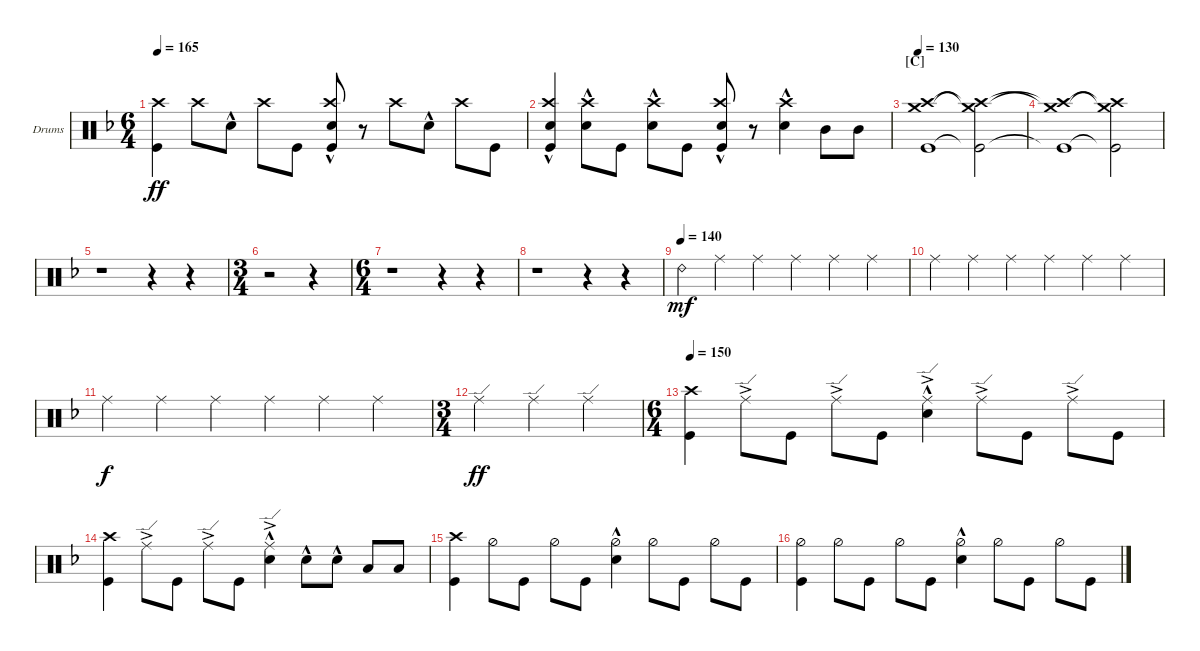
\defaultSystemsLayout 4
\bracketExtendMode groupsimilarinstruments
\firstSystemTrackNameOrientation horizontal
\otherSystemsTrackNameOrientation horizontal
\track ("Drumkit" "Drums") {instrument percussion}
\staff {score}
\articulation defaults
\ts (6 4)
\tempo 165
\clef neutral
\ks f
("Kick (hit)" "Crash high (hit)").4{dy ff} "Crash high (hit)".8 "Snare (hit) 2"{hac}.8 "Crash high (hit)".8 "Kick (hit)".8 ("Kick (hit)" "Snare (hit) 2"{hac} "Crash high (hit)").8 r.8 "Crash high (hit)".8 "Snare (hit) 2"{hac}.8 "Crash high (hit)".8 "Kick (hit)".8 |
("Kick (hit)" "Crash high (hit)" "Snare (hit) 2"{hac}).4 ("Crash high (hit)" "Snare (hit) 2"{hac}).8 "Kick (hit)".8 ("Crash high (hit)" "Snare (hit) 2"{hac}).8 "Kick (hit)".8 ("Kick (hit)" "Snare (hit) 2"{hac} "Crash high (hit)").8 r.8 ("Crash high (hit)" "Snare (hit) 2"{hac}).4 "Mid Tom (hit)".8 "Mid Tom (hit)".8 |
\section ("C" "")
\tempo 130
("Kick (hit)" "Crash high (hit)" "Crash medium (hit)").1 ("Kick (hit)"{t} "Crash medium (hit)"{t} "Crash high (hit)"{t}).2 |
("Kick (hit)"{t} "Crash high (hit)"{t} "Crash medium (hit)"{t}).1 ("Kick (hit)"{t} "Crash medium (hit)"{t} "Crash high (hit)"{t}).2 |
r.1 r.4 r.4 |
\ts (3 4)
r.2 r.4 |
\ts (6 4)
r.1 r.4 r.4 |
r.1 r.4 r.4 |
\tempo (140)
"Ride (bell) 2".4{dy mf} "Ride (middle)".4 "Ride (middle)".4 "Ride (middle)".4 "Ride (middle)".4 "Ride (middle)".4 |
"Ride (middle)".4 "Ride (middle)".4 "Ride (middle)".4 "Ride (middle)".4 "Ride (middle)".4 "Ride (middle)".4 |
"Ride (middle)".4{dy f} "Ride (middle)".4 "Ride (middle)".4 "Ride (middle)".4 "Ride (middle)".4 "Ride (middle)".4 |
\ts (3 4)
"Ride (edge)".4{dy ff} "Ride (edge)".4 "Ride (edge)".4 |
\ts (6 4)
\tempo 150
("Kick (hit)" "Crash high (hit)").4 "Ride (edge)"{ac}.8 "Kick (hit)".8 "Ride (edge)"{ac}.8 "Kick (hit)".8 ("Snare (hit) 2"{hac} "Ride (edge)"{ac}).4 "Ride (edge)"{ac}.8 "Kick (hit)".8 "Ride (edge)"{ac}.8 "Kick (hit)".8 |
("Kick (hit)" "Crash high (hit)").4 "Ride (edge)"{ac}.8 "Kick (hit)".8 "Ride (edge)"{ac}.8 "Kick (hit)".8 ("Snare (hit) 2"{hac} "Ride (edge)"{ac}).4 "Snare (hit) 2"{hac}.8 "Snare (hit) 2"{hac}.8 "Low Tom (hit)".8 "Low Tom (hit)".8 |
("Kick (hit)" "Crash high (hit)").4 "Hi-Hat (half)".8 "Kick (hit)".8 "Hi-Hat (half)".8 "Kick (hit)".8 ("Hi-Hat (half)" "Snare (hit) 2"{hac}).4 "Hi-Hat (half)".8 "Kick (hit)".8 "Hi-Hat (half)".8 "Kick (hit)".8 |
("Kick (hit)" "Hi-Hat (half)").4 "Hi-Hat (half)".8 "Kick (hit)".8 "Hi-Hat (half)".8 "Kick (hit)".8 ("Hi-Hat (half)" "Snare (hit) 2"{hac}).4 "Hi-Hat (half)".8 "Kick (hit)".8 "Hi-Hat (half)".8 "Kick (hit)".8
